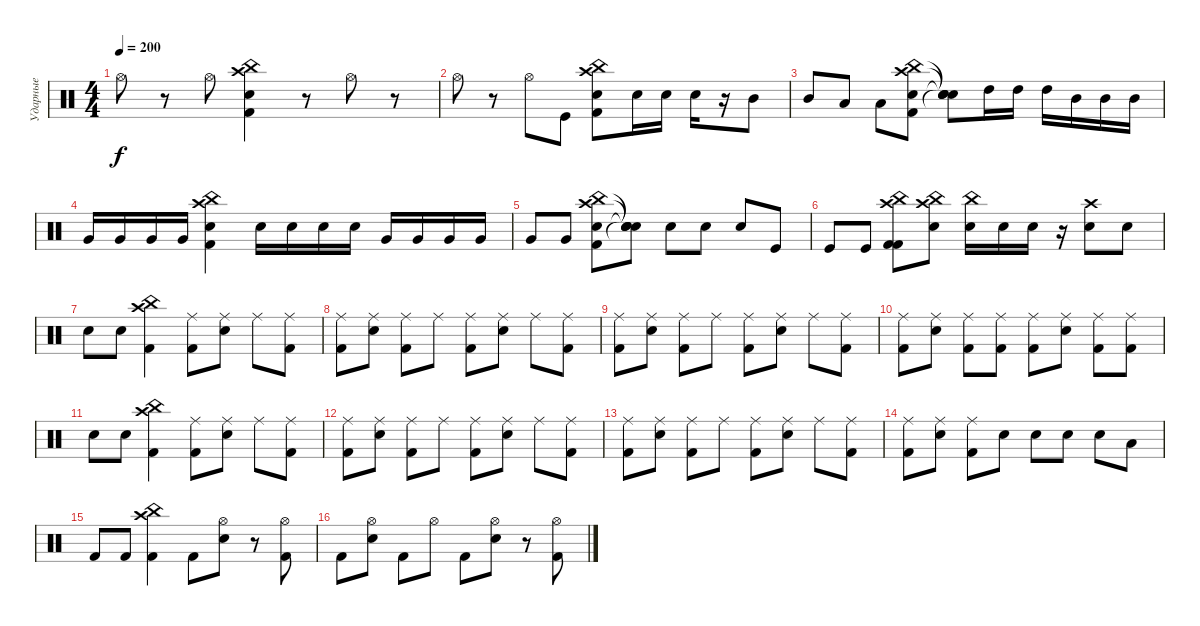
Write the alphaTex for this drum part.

\track ("Ударные" "Ударные") {instrument percussion}
\staff {score}
\articulation defaults
\ts (4 4)
\tempo 200
\clef neutral
\ks c "Hi-Hat (open)".8{dy f}
r.8 "Hi-Hat (open)".8 ("China (hit)" "Kick (hit) 2" "Electric Snare (hit)" "Crash high (hit)").4 r.8 "Hi-Hat (open)".8 r.8 |
"Hi-Hat (open)".8 r.8 "Hi-Hat (open)".8 "Kick (hit)".8 ("Electric Snare (hit)" "Kick (hit) 2" "Crash high (hit)" "China (hit)").8 "Electric Snare (hit)".16 "Electric Snare (hit)".16 "Electric Snare (hit)".16 r.16 "Mid Tom (hit)".8 |
"Mid Tom (hit)".8 "Low Tom (hit)".8 "Low Tom (hit)".8 ("Kick (hit) 2" "Electric Snare (hit)" "Crash high (hit)" "China (hit)").8 ("Snare (hit)"{t} "Snare (hit)"{t} "Snare (hit)"{t} "Snare (hit)"{t}).8 "High Tom (hit)".16 "High Tom (hit)".16 "High Tom (hit)".16 "Mid Tom (hit)".16 "Mid Tom (hit)".16 "Mid Tom (hit)".16 |
"Very Low Tom (hit)".16 "Very Low Tom (hit)".16 "Very Low Tom (hit)".16 "Very Low Tom (hit)".16 ("Kick (hit) 2" "Electric Snare (hit)" "Crash high (hit)" "China (hit)").4 "Snare (hit) 2".16 "Snare (hit) 2".16 "Snare (hit) 2".16 "Snare (hit) 2".16 "Very Low Tom (hit)".16 "Very Low Tom (hit)".16 "Very Low Tom (hit)".16 "Very Low Tom (hit)".16 |
"Very Low Tom (hit)".8 "Very Low Tom (hit)".8 ("Kick (hit) 2" "Hand Clap (hit)" "Crash high (hit)" "China (hit)").8 ("Snare (hit)"{t} "Snare (hit)"{t} "Snare (hit)"{t} "Snare (hit)"{t}).8 "Snare (hit) 2".8 "Snare (hit) 2".8 "Snare (hit) 2".8 "Kick (hit)".8 |
"Kick (hit)".8 "Kick (hit)".8 ("Kick (hit) 2" "Kick (hit) 2" "Crash high (hit)" "China (hit)").8 ("Electric Snare (hit)" "China (hit)" "Crash high (hit)").8 ("Electric Snare (hit)" "China (hit)").16 "Electric Snare (hit)".16 "Electric Snare (hit)".16 r.16 ("Electric Snare (hit)" "Crash high (hit)").8 "Electric Snare (hit)".8 |
"Snare (hit) 2".8 "Snare (hit) 2".8 ("Kick (hit) 2" "China (hit)" "Crash high (hit)").4 ("Kick (hit) 2" "Ride (middle)").8 ("Electric Snare (hit)" "Ride (middle)").8 "Ride (middle)".8 ("Kick (hit) 2" "Ride (middle)").8 |
("Kick (hit) 2" "Ride (middle)").8 ("Electric Snare (hit)" "Ride (middle)").8 ("Kick (hit) 2" "Ride (middle)").8 "Ride (middle)".8 ("Kick (hit) 2" "Ride (middle)").8 ("Electric Snare (hit)" "Ride (middle)").8 "Ride (middle)".8 ("Kick (hit) 2" "Ride (middle)").8 |
("Kick (hit) 2" "Ride (middle)").8 ("Electric Snare (hit)" "Ride (middle)").8 ("Kick (hit) 2" "Ride (middle)").8 "Ride (middle)".8 ("Kick (hit) 2" "Ride (middle)").8 ("Electric Snare (hit)" "Ride (middle)").8 "Ride (middle)".8 ("Kick (hit) 2" "Ride (middle)").8 |
("Kick (hit) 2" "Ride (middle)").8 ("Electric Snare (hit)" "Ride (middle)").8 ("Kick (hit) 2" "Ride (middle)").8 ("Kick (hit) 2" "Ride (middle)").8 ("Kick (hit) 2" "Ride (middle)").8 ("Electric Snare (hit)" "Ride (middle)").8 ("Kick (hit) 2" "Ride (middle)").8 ("Kick (hit) 2" "Ride (middle)").8 |
"Snare (hit) 2".8 "Snare (hit) 2".8 ("Kick (hit) 2" "China (hit)" "Crash high (hit)").4 ("Kick (hit) 2" "Ride (middle)").8 ("Electric Snare (hit)" "Ride (middle)").8 "Ride (middle)".8 ("Kick (hit) 2" "Ride (middle)").8 |
("Kick (hit) 2" "Ride (middle)").8 ("Electric Snare (hit)" "Ride (middle)").8 ("Kick (hit) 2" "Ride (middle)").8 "Ride (middle)".8 ("Kick (hit) 2" "Ride (middle)").8 ("Electric Snare (hit)" "Ride (middle)").8 "Ride (middle)".8 ("Kick (hit) 2" "Ride (middle)").8 |
("Kick (hit) 2" "Ride (middle)").8 ("Electric Snare (hit)" "Ride (middle)").8 ("Kick (hit) 2" "Ride (middle)").8 "Ride (middle)".8 ("Kick (hit) 2" "Ride (middle)").8 ("Electric Snare (hit)" "Ride (middle)").8 "Ride (middle)".8 ("Kick (hit) 2" "Ride (middle)").8 |
("Kick (hit) 2" "Ride (middle)").8 ("Electric Snare (hit)" "Ride (middle)").8 ("Kick (hit) 2" "Ride (middle)").8 "Electric Snare (hit)".8 "Electric Snare (hit)".8 "Electric Snare (hit)".8 "Electric Snare (hit)".8 "Low Tom (hit)".8 |
"Kick (hit) 2".8 "Kick (hit) 2".8 ("Kick (hit) 2" "China (hit)" "Crash high (hit)").4 "Kick (hit) 2".8 ("Electric Snare (hit)" "Hi-Hat (open)").8 r.8 ("Kick (hit) 2" "Hi-Hat (open)").8 |
"Kick (hit) 2".8 ("Electric Snare (hit)" "Hi-Hat (open)").8 "Kick (hit) 2".8 "Hi-Hat (open)".8 "Kick (hit) 2".8 ("Electric Snare (hit)" "Hi-Hat (open)").8 r.8 ("Hi-Hat (open)" "Kick (hit) 2").8
